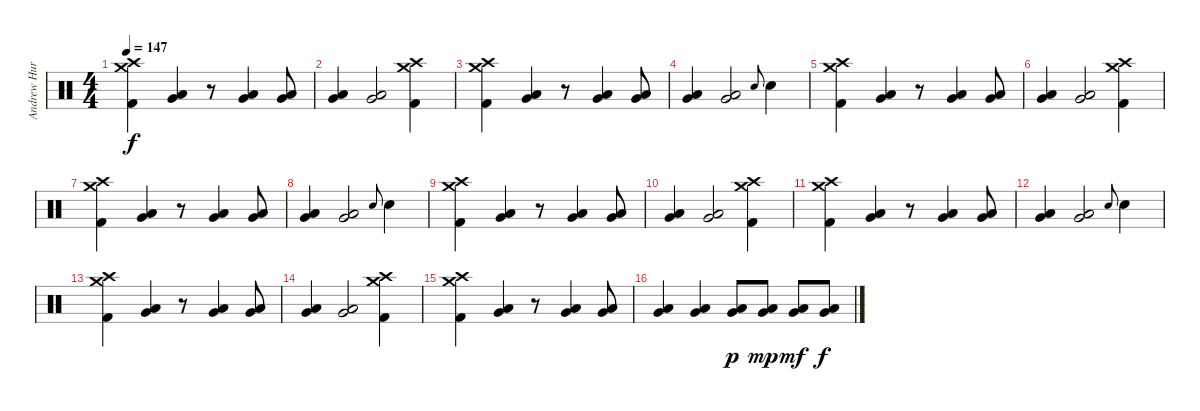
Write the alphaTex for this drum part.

\track ("Andrew Hurley (Drums)" "Andrew Hur") {instrument percussion}
\staff {score}
\articulation defaults
\ts (4 4)
\tempo 147
\clef neutral
\ks c
("Crash high (hit)" "Crash medium (hit)" "Kick (hit) 2").4{dy f} ("Very Low Tom (hit)" "Low Tom (hit)").4 r.8 ("Very Low Tom (hit)" "Low Tom (hit)").4 ("Very Low Tom (hit)" "Low Tom (hit)").8 |
("Very Low Tom (hit)" "Low Tom (hit)").4 ("Very Low Tom (hit)" "Low Tom (hit)").2 ("Crash high (hit)" "Crash medium (hit)" "Kick (hit) 2").4 |
("Crash high (hit)" "Crash medium (hit)" "Kick (hit) 2").4 ("Very Low Tom (hit)" "Low Tom (hit)").4 r.8 ("Very Low Tom (hit)" "Low Tom (hit)").4 ("Very Low Tom (hit)" "Low Tom (hit)").8 |
("Very Low Tom (hit)" "Low Tom (hit)").4 ("Very Low Tom (hit)" "Low Tom (hit)").2 "Snare (hit) 2".8{gr onbeat} "Snare (hit) 2".4 |
("Crash high (hit)" "Crash medium (hit)" "Kick (hit) 2").4 ("Very Low Tom (hit)" "Low Tom (hit)").4 r.8 ("Very Low Tom (hit)" "Low Tom (hit)").4 ("Very Low Tom (hit)" "Low Tom (hit)").8 |
("Very Low Tom (hit)" "Low Tom (hit)").4 ("Very Low Tom (hit)" "Low Tom (hit)").2 ("Crash high (hit)" "Crash medium (hit)" "Kick (hit) 2").4 |
("Crash high (hit)" "Crash medium (hit)" "Kick (hit) 2").4 ("Very Low Tom (hit)" "Low Tom (hit)").4 r.8 ("Very Low Tom (hit)" "Low Tom (hit)").4 ("Very Low Tom (hit)" "Low Tom (hit)").8 |
("Very Low Tom (hit)" "Low Tom (hit)").4 ("Very Low Tom (hit)" "Low Tom (hit)").2 "Snare (hit) 2".8{gr onbeat} "Snare (hit) 2".4 |
("Crash high (hit)" "Crash medium (hit)" "Kick (hit) 2").4 ("Very Low Tom (hit)" "Low Tom (hit)").4 r.8 ("Very Low Tom (hit)" "Low Tom (hit)").4 ("Very Low Tom (hit)" "Low Tom (hit)").8 |
("Very Low Tom (hit)" "Low Tom (hit)").4 ("Very Low Tom (hit)" "Low Tom (hit)").2 ("Crash high (hit)" "Crash medium (hit)" "Kick (hit) 2").4 |
("Crash high (hit)" "Crash medium (hit)" "Kick (hit) 2").4 ("Very Low Tom (hit)" "Low Tom (hit)").4 r.8 ("Very Low Tom (hit)" "Low Tom (hit)").4 ("Very Low Tom (hit)" "Low Tom (hit)").8 |
("Very Low Tom (hit)" "Low Tom (hit)").4 ("Very Low Tom (hit)" "Low Tom (hit)").2 "Snare (hit) 2".8{gr onbeat} "Snare (hit) 2".4 |
("Crash high (hit)" "Crash medium (hit)" "Kick (hit) 2").4 ("Very Low Tom (hit)" "Low Tom (hit)").4 r.8 ("Very Low Tom (hit)" "Low Tom (hit)").4 ("Very Low Tom (hit)" "Low Tom (hit)").8 |
("Very Low Tom (hit)" "Low Tom (hit)").4 ("Very Low Tom (hit)" "Low Tom (hit)").2 ("Crash high (hit)" "Crash medium (hit)" "Kick (hit) 2").4 |
("Crash high (hit)" "Crash medium (hit)" "Kick (hit) 2").4 ("Very Low Tom (hit)" "Low Tom (hit)").4 r.8 ("Very Low Tom (hit)" "Low Tom (hit)").4 ("Very Low Tom (hit)" "Low Tom (hit)").8 |
("Very Low Tom (hit)" "Low Tom (hit)").4 ("Very Low Tom (hit)" "Low Tom (hit)").4 ("Very Low Tom (hit)" "Low Tom (hit)").8{dy p} ("Very Low Tom (hit)" "Low Tom (hit)").8{dy mp} ("Very Low Tom (hit)" "Low Tom (hit)").8{dy mf} ("Very Low Tom (hit)" "Low Tom (hit)").8{dy f}
